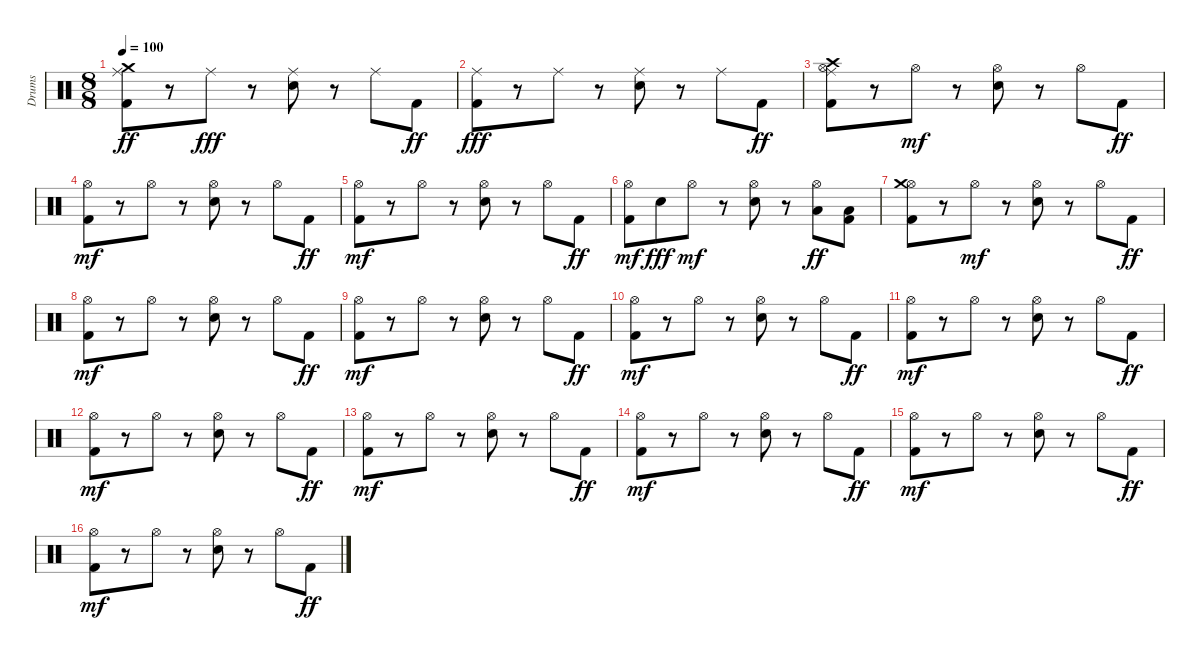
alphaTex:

\track ("Drums" "Drums") {instrument percussion}
\staff {score}
\articulation defaults
\ts (8 8)
\tempo 100
\clef neutral
\ks c
("Kick (hit) 2" "Ride (middle)" "Crash medium (hit)").8{dy ff} r.8 "Ride (middle)".8{dy fff} r.8 ("Snare (hit) 2" "Ride (middle)").8 r.8 "Ride (middle)".8 "Kick (hit) 2".8{dy ff} |
("Kick (hit) 2" "Ride (middle)").8{dy fff} r.8 "Ride (middle)".8 r.8 ("Snare (hit) 2" "Ride (middle)").8 r.8 "Ride (middle)".8 "Kick (hit) 2".8{dy ff} |
("Kick (hit) 2" "Hi-Hat (open)" "Ride (middle)" "Crash high (hit)").8 r.8 "Hi-Hat (open)".8{dy mf} r.8 ("Snare (hit) 2" "Hi-Hat (open)").8 r.8 "Hi-Hat (open)".8 "Kick (hit) 2".8{dy ff} |
("Kick (hit) 2" "Hi-Hat (open)").8{dy mf} r.8 "Hi-Hat (open)".8 r.8 ("Snare (hit) 2" "Hi-Hat (open)").8 r.8 "Hi-Hat (open)".8 "Kick (hit) 2".8{dy ff} |
("Kick (hit) 2" "Hi-Hat (open)").8{dy mf} r.8 "Hi-Hat (open)".8 r.8 ("Snare (hit) 2" "Hi-Hat (open)").8 r.8 "Hi-Hat (open)".8 "Kick (hit) 2".8{dy ff} |
("Kick (hit) 2" "Hi-Hat (open)").8{dy mf} "Snare (hit) 2".8{dy fff} "Hi-Hat (open)".8{dy mf} r.8 ("Snare (hit) 2" "Hi-Hat (open)").8 r.8 ("Hi-Hat (open)" "Low Tom (hit)").8{dy ff} ("Kick (hit) 2" "Low Floor Tom (hit)").8 |
("Kick (hit) 2" "Hi-Hat (open)" "Crash medium (hit)").8 r.8 "Hi-Hat (open)".8{dy mf} r.8 ("Snare (hit) 2" "Hi-Hat (open)").8 r.8 "Hi-Hat (open)".8 "Kick (hit) 2".8{dy ff} |
("Kick (hit) 2" "Hi-Hat (open)").8{dy mf} r.8 "Hi-Hat (open)".8 r.8 ("Snare (hit) 2" "Hi-Hat (open)").8 r.8 "Hi-Hat (open)".8 "Kick (hit) 2".8{dy ff} |
("Kick (hit) 2" "Hi-Hat (open)").8{dy mf} r.8 "Hi-Hat (open)".8 r.8 ("Snare (hit) 2" "Hi-Hat (open)").8 r.8 "Hi-Hat (open)".8 "Kick (hit) 2".8{dy ff} |
("Kick (hit) 2" "Hi-Hat (open)").8{dy mf} r.8 "Hi-Hat (open)".8 r.8 ("Snare (hit) 2" "Hi-Hat (open)").8 r.8 "Hi-Hat (open)".8 "Kick (hit) 2".8{dy ff} |
("Kick (hit) 2" "Hi-Hat (open)").8{dy mf} r.8 "Hi-Hat (open)".8 r.8 ("Snare (hit) 2" "Hi-Hat (open)").8 r.8 "Hi-Hat (open)".8 "Kick (hit) 2".8{dy ff} |
("Kick (hit) 2" "Hi-Hat (open)").8{dy mf} r.8 "Hi-Hat (open)".8 r.8 ("Snare (hit) 2" "Hi-Hat (open)").8 r.8 "Hi-Hat (open)".8 "Kick (hit) 2".8{dy ff} |
("Kick (hit) 2" "Hi-Hat (open)").8{dy mf} r.8 "Hi-Hat (open)".8 r.8 ("Snare (hit) 2" "Hi-Hat (open)").8 r.8 "Hi-Hat (open)".8 "Kick (hit) 2".8{dy ff} |
("Kick (hit) 2" "Hi-Hat (open)").8{dy mf} r.8 "Hi-Hat (open)".8 r.8 ("Snare (hit) 2" "Hi-Hat (open)").8 r.8 "Hi-Hat (open)".8 "Kick (hit) 2".8{dy ff} |
("Kick (hit) 2" "Hi-Hat (open)").8{dy mf} r.8 "Hi-Hat (open)".8 r.8 ("Snare (hit) 2" "Hi-Hat (open)").8 r.8 "Hi-Hat (open)".8 "Kick (hit) 2".8{dy ff} |
("Kick (hit) 2" "Hi-Hat (open)").8{dy mf} r.8 "Hi-Hat (open)".8 r.8 ("Snare (hit) 2" "Hi-Hat (open)").8 r.8 "Hi-Hat (open)".8 "Kick (hit) 2".8{dy ff}
